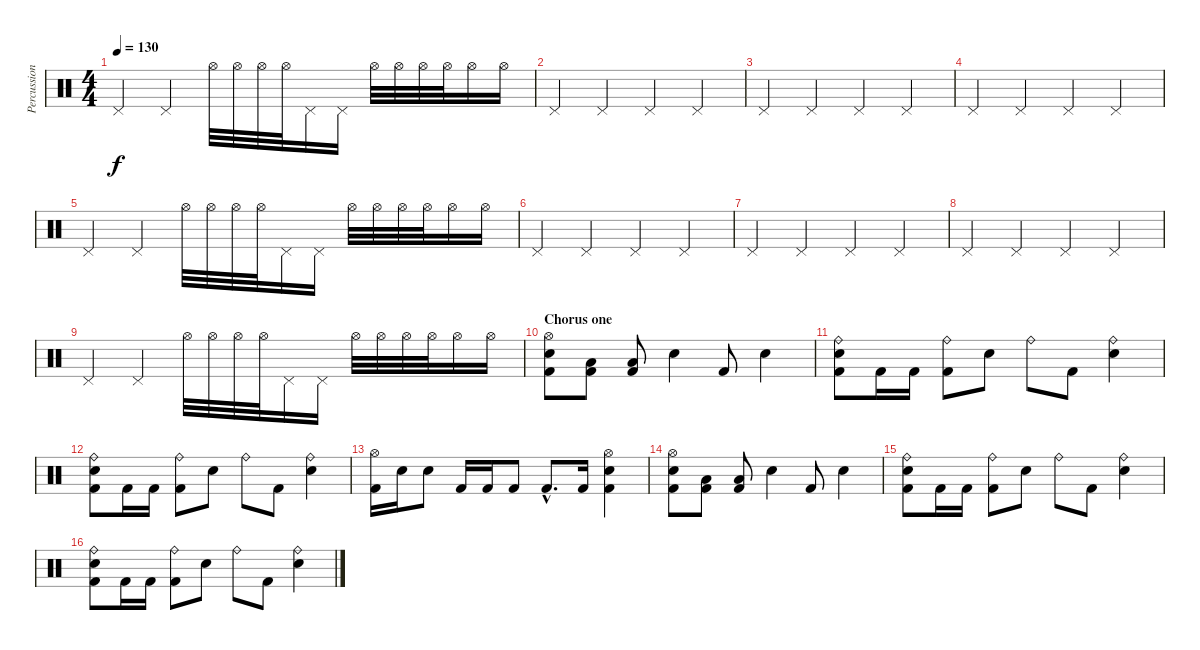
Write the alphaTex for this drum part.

\track ("Percussion" "Percussion") {instrument percussion}
\staff {score}
\articulation defaults
\ts (4 4)
\tempo 130
\clef neutral
\ks c "Pedal Hi-Hat (hit)".4{dy f} "Pedal Hi-Hat (hit)".4 "Hi-Hat (open)".32 "Hi-Hat (open)".32 "Hi-Hat (open)".32 "Hi-Hat (open)".32 "Pedal Hi-Hat (hit)".16 "Pedal Hi-Hat (hit)".16 "Hi-Hat (open)".32 "Hi-Hat (open)".32 "Hi-Hat (open)".32 "Hi-Hat (open)".32 "Hi-Hat (open)".16 "Hi-Hat (open)".16
|
"Pedal Hi-Hat (hit)".4 "Pedal Hi-Hat (hit)".4 "Pedal Hi-Hat (hit)".4 "Pedal Hi-Hat (hit)".4 |
"Pedal Hi-Hat (hit)".4 "Pedal Hi-Hat (hit)".4 "Pedal Hi-Hat (hit)".4 "Pedal Hi-Hat (hit)".4 |
"Pedal Hi-Hat (hit)".4 "Pedal Hi-Hat (hit)".4 "Pedal Hi-Hat (hit)".4 "Pedal Hi-Hat (hit)".4 |
"Pedal Hi-Hat (hit)".4 "Pedal Hi-Hat (hit)".4 "Hi-Hat (open)".32 "Hi-Hat (open)".32 "Hi-Hat (open)".32 "Hi-Hat (open)".32 "Pedal Hi-Hat (hit)".16 "Pedal Hi-Hat (hit)".16 "Hi-Hat (open)".32 "Hi-Hat (open)".32 "Hi-Hat (open)".32 "Hi-Hat (open)".32 "Hi-Hat (open)".16 "Hi-Hat (open)".16 |
"Pedal Hi-Hat (hit)".4 "Pedal Hi-Hat (hit)".4 "Pedal Hi-Hat (hit)".4 "Pedal Hi-Hat (hit)".4 |
"Pedal Hi-Hat (hit)".4 "Pedal Hi-Hat (hit)".4 "Pedal Hi-Hat (hit)".4 "Pedal Hi-Hat (hit)".4 |
"Pedal Hi-Hat (hit)".4 "Pedal Hi-Hat (hit)".4 "Pedal Hi-Hat (hit)".4 "Pedal Hi-Hat (hit)".4 |
"Pedal Hi-Hat (hit)".4 "Pedal Hi-Hat (hit)".4 "Hi-Hat (open)".32 "Hi-Hat (open)".32 "Hi-Hat (open)".32 "Hi-Hat (open)".32 "Pedal Hi-Hat (hit)".16 "Pedal Hi-Hat (hit)".16 "Hi-Hat (open)".32 "Hi-Hat (open)".32 "Hi-Hat (open)".32 "Hi-Hat (open)".32 "Hi-Hat (open)".16 "Hi-Hat (open)".16 |
\section ("" "Chorus one")
("Hi-Hat (open)" "Electric Snare (hit)" "Kick (hit) 2").8 ("Low Floor Tom (hit)" "Kick (hit) 2").8 ("Low Floor Tom (hit)" "Kick (hit) 2").8 "Electric Snare (hit)".4 "Kick (hit) 2".8 "Electric Snare (hit)".4 |
("Ride (bell)" "Electric Snare (hit)" "Kick (hit) 2").8 "Kick (hit) 2".16 "Kick (hit) 2".16 ("Ride (bell)" "Kick (hit) 2").8 "Electric Snare (hit)".8 "Ride (bell)".8 "Kick (hit) 2".8 ("Ride (bell)" "Electric Snare (hit)").4 |
("Ride (bell)" "Electric Snare (hit)" "Kick (hit) 2").8 "Kick (hit) 2".16 "Kick (hit) 2".16 ("Ride (bell)" "Kick (hit) 2").8 "Electric Snare (hit)".8 "Ride (bell)".8 "Kick (hit) 2".8 ("Ride (bell)" "Electric Snare (hit)").4 |
("Hi-Hat (open)" "Kick (hit) 2").16 "Electric Snare (hit)".16 "Electric Snare (hit)".8 "Kick (hit) 2".16 "Kick (hit) 2".16 "Kick (hit) 2".8 "Kick (hit) 2"{hac}.8{d} "Kick (hit) 2".16 ("Hi-Hat (open)" "Kick (hit) 2" "Electric Snare (hit)").4 |
("Hi-Hat (open)" "Electric Snare (hit)" "Kick (hit) 2").8 ("Low Floor Tom (hit)" "Kick (hit) 2").8 ("Low Floor Tom (hit)" "Kick (hit) 2").8 "Electric Snare (hit)".4 "Kick (hit) 2".8 "Electric Snare (hit)".4 |
("Ride (bell)" "Electric Snare (hit)" "Kick (hit) 2").8 "Kick (hit) 2".16 "Kick (hit) 2".16 ("Ride (bell)" "Kick (hit) 2").8 "Electric Snare (hit)".8 "Ride (bell)".8 "Kick (hit) 2".8 ("Ride (bell)" "Electric Snare (hit)").4 |
("Ride (bell)" "Electric Snare (hit)" "Kick (hit) 2").8 "Kick (hit) 2".16 "Kick (hit) 2".16 ("Ride (bell)" "Kick (hit) 2").8 "Electric Snare (hit)".8 "Ride (bell)".8 "Kick (hit) 2".8 ("Ride (bell)" "Electric Snare (hit)").4
